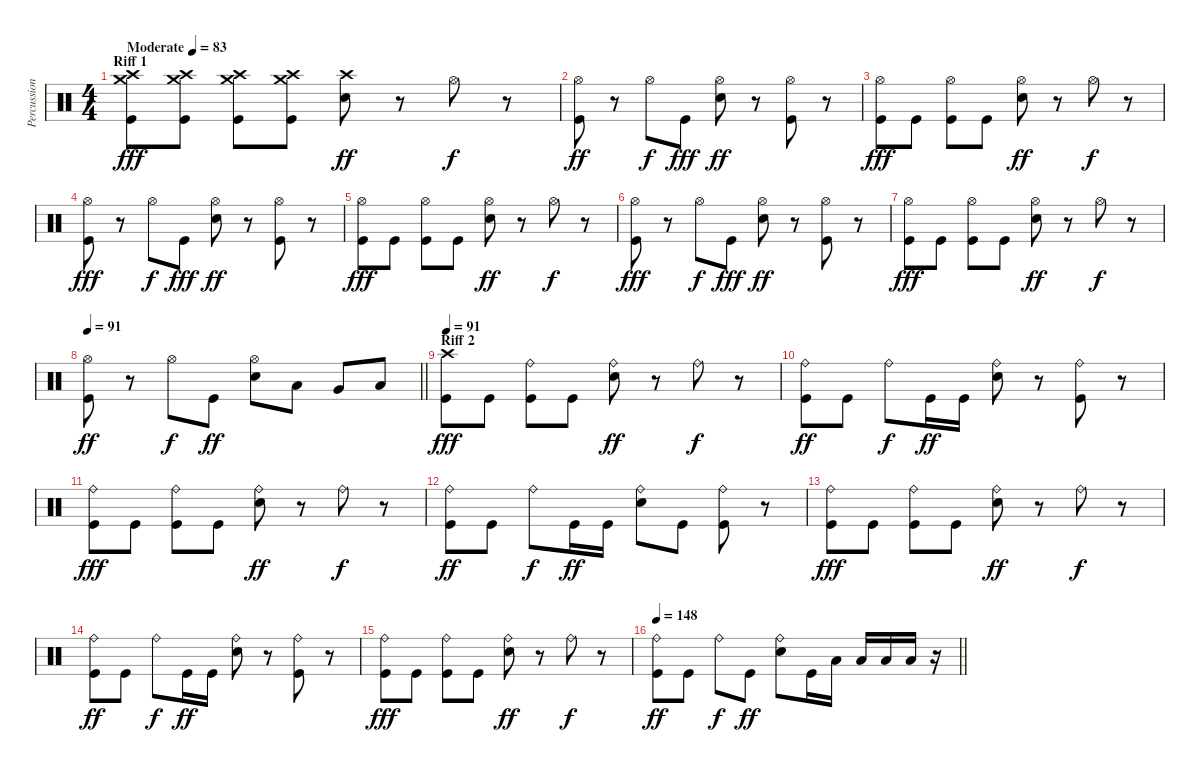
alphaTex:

\track ("Percussions" "Percussion") {instrument percussion}
\staff {score}
\articulation defaults
\ts (4 4)
\section ("" "Riff 1")
\tempo (83 "Moderate")
\clef neutral
\ks c
("Crash high (hit)" "Crash medium (hit)" "Kick (hit)").8{dy fff} ("Crash high (hit)" "Crash medium (hit)" "Kick (hit)").8 ("Crash high (hit)" "Crash medium (hit)" "Kick (hit)").8 ("Crash high (hit)" "Crash medium (hit)" "Kick (hit)").8 ("Crash high (hit)" "Electric Snare (hit)").8{dy ff} r.8 "Hi-Hat (open)".8{dy f} r.8 |
("Hi-Hat (open)" "Kick (hit)").8{dy ff} r.8{beam split} "Hi-Hat (open)".8{dy f} "Kick (hit)".8{dy fff} ("Hi-Hat (open)" "Electric Snare (hit)").8{dy ff} r.8{beam split} ("Hi-Hat (open)" "Kick (hit)").8 r.8 |
("Hi-Hat (open)" "Kick (hit)").8{dy fff} "Kick (hit)".8 ("Hi-Hat (open)" "Kick (hit)").8 "Kick (hit)".8 ("Hi-Hat (open)" "Electric Snare (hit)").8{dy ff} r.8 "Hi-Hat (open)".8{dy f} r.8 |
("Hi-Hat (open)" "Kick (hit)").8{dy fff} r.8{beam split} "Hi-Hat (open)".8{dy f} "Kick (hit)".8{dy fff} ("Hi-Hat (open)" "Electric Snare (hit)").8{dy ff} r.8{beam split} ("Hi-Hat (open)" "Kick (hit)").8 r.8 |
("Hi-Hat (open)" "Kick (hit)").8{dy fff} "Kick (hit)".8 ("Hi-Hat (open)" "Kick (hit)").8 "Kick (hit)".8 ("Hi-Hat (open)" "Electric Snare (hit)").8{dy ff} r.8 "Hi-Hat (open)".8{dy f} r.8 |
("Hi-Hat (open)" "Kick (hit)").8{dy fff} r.8{beam split} "Hi-Hat (open)".8{dy f} "Kick (hit)".8{dy fff} ("Hi-Hat (open)" "Electric Snare (hit)").8{dy ff} r.8{beam split} ("Hi-Hat (open)" "Kick (hit)").8 r.8 |
("Hi-Hat (open)" "Kick (hit)").8{dy fff} "Kick (hit)".8 ("Hi-Hat (open)" "Kick (hit)").8 "Kick (hit)".8 ("Hi-Hat (open)" "Electric Snare (hit)").8{dy ff} r.8 "Hi-Hat (open)".8{dy f} r.8 |
\tempo 91
\barLineRight lightlight
("Hi-Hat (open)" "Kick (hit)").8{dy ff} r.8{beam split} "Hi-Hat (open)".8{dy f} "Kick (hit)".8{dy ff} ("Hi-Hat (open)" "Electric Snare (hit)").8 "Low Tom (hit)".8 "Very Low Tom (hit)".8 "Low Floor Tom (hit)".8 |
\section ("" "Riff 2")
\tempo 91
("Crash high (hit)" "Kick (hit)").8{dy fff} "Kick (hit)".8 ("Ride (bell)" "Kick (hit)").8 "Kick (hit)".8 ("Ride (bell)" "Electric Snare (hit)").8{dy ff} r.8 "Ride (bell)".8{dy f} r.8 |
("Ride (bell)" "Kick (hit)").8{dy ff} "Kick (hit)".8 "Ride (bell)".8{dy f} "Kick (hit)".16{dy ff} "Kick (hit)".16 ("Ride (bell)" "Electric Snare (hit)").8 r.8 ("Ride (bell)" "Kick (hit)").8 r.8 |
("Ride (bell)" "Kick (hit)").8{dy fff} "Kick (hit)".8 ("Ride (bell)" "Kick (hit)").8 "Kick (hit)".8 ("Ride (bell)" "Electric Snare (hit)").8{dy ff} r.8 "Ride (bell)".8{dy f} r.8 |
("Ride (bell)" "Kick (hit)").8{dy ff} "Kick (hit)".8 "Ride (bell)".8{dy f} "Kick (hit)".16{dy ff} "Kick (hit)".16 ("Ride (bell)" "Electric Snare (hit)").8 "Kick (hit)".8 ("Ride (bell)" "Kick (hit)").8 r.8 |
("Ride (bell)" "Kick (hit)").8{dy fff} "Kick (hit)".8 ("Ride (bell)" "Kick (hit)").8 "Kick (hit)".8 ("Ride (bell)" "Electric Snare (hit)").8{dy ff} r.8 "Ride (bell)".8{dy f} r.8 |
("Ride (bell)" "Kick (hit)").8{dy ff} "Kick (hit)".8 "Ride (bell)".8{dy f} "Kick (hit)".16{dy ff} "Kick (hit)".16 ("Ride (bell)" "Electric Snare (hit)").8 r.8 ("Ride (bell)" "Kick (hit)").8 r.8 |
("Ride (bell)" "Kick (hit)").8{dy fff} "Kick (hit)".8 ("Ride (bell)" "Kick (hit)").8 "Kick (hit)".8 ("Ride (bell)" "Electric Snare (hit)").8{dy ff} r.8 "Ride (bell)".8{dy f} r.8 |
\tempo 148
\barLineRight lightlight
("Ride (bell)" "Kick (hit)").8{dy ff} "Kick (hit)".8 "Ride (bell)".8{dy f} "Kick (hit)".8{dy ff} ("Ride (bell)" "Electric Snare (hit)").8 "Kick (hit)".16 "Low Floor Tom (hit)".16 "Low Floor Tom (hit)".16 "Low Floor Tom (hit)".16 "Low Floor Tom (hit)".16 r.16
